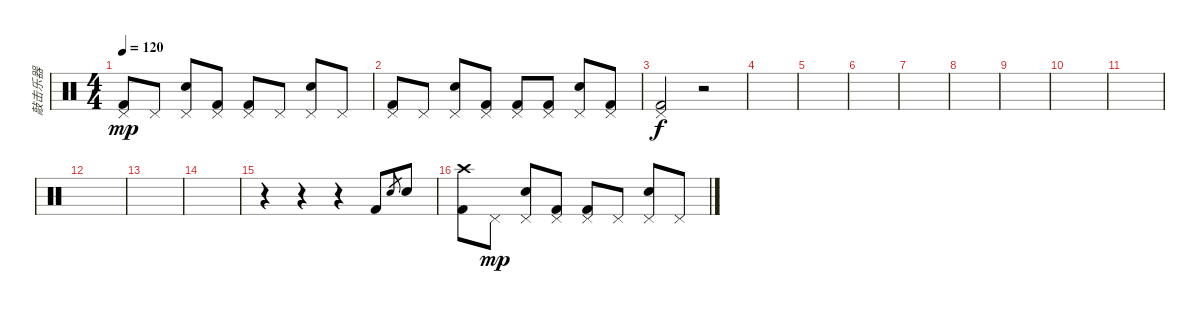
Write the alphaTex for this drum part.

\track ("敲击乐器" "敲击乐器") {instrument percussion}
\staff {score}
\articulation defaults
\ts (4 4)
\tempo 120
\clef neutral
\ks c
("Pedal Hi-Hat (hit)" "Kick (hit) 2").8{dy mp} "Pedal Hi-Hat (hit)".8 ("Pedal Hi-Hat (hit)" "Electric Snare (hit)").8 ("Pedal Hi-Hat (hit)" "Kick (hit) 2").8 ("Pedal Hi-Hat (hit)" "Kick (hit) 2").8 "Pedal Hi-Hat (hit)".8 ("Pedal Hi-Hat (hit)" "Electric Snare (hit)").8 "Pedal Hi-Hat (hit)".8 |
("Pedal Hi-Hat (hit)" "Kick (hit) 2").8 "Pedal Hi-Hat (hit)".8 ("Pedal Hi-Hat (hit)" "Electric Snare (hit)").8 ("Pedal Hi-Hat (hit)" "Kick (hit) 2").8 ("Pedal Hi-Hat (hit)" "Kick (hit) 2").8 ("Pedal Hi-Hat (hit)" "Kick (hit) 2").8 ("Pedal Hi-Hat (hit)" "Electric Snare (hit)").8 ("Pedal Hi-Hat (hit)" "Kick (hit) 2").8 |
("Pedal Hi-Hat (hit)" "Kick (hit) 2").2{dy f} r.2 |
|
|
|
|
|
|
|
|
|
|
|
r.4 r.4 r.4 "Kick (hit) 2".8 "Electric Snare (hit)".8{gr} "Electric Snare (hit)".8 |
("Crash high (hit)" "Kick (hit) 2").8 "Pedal Hi-Hat (hit)".8{dy mp} ("Pedal Hi-Hat (hit)" "Electric Snare (hit)").8 ("Pedal Hi-Hat (hit)" "Kick (hit) 2").8 ("Pedal Hi-Hat (hit)" "Kick (hit) 2").8 "Pedal Hi-Hat (hit)".8 ("Pedal Hi-Hat (hit)" "Electric Snare (hit)").8 "Pedal Hi-Hat (hit)".8
